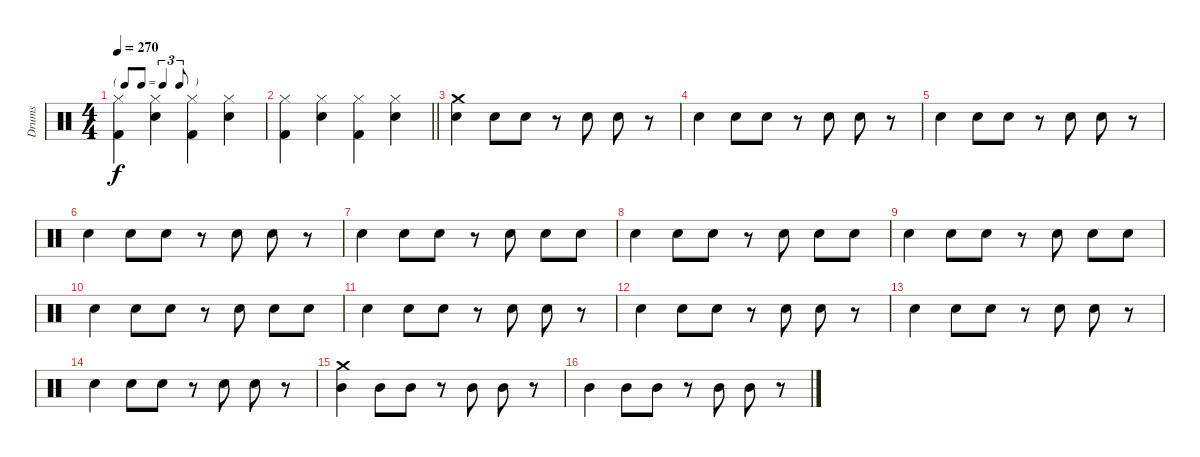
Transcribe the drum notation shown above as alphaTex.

\track ("Drums" "Drums") {instrument percussion}
\staff {score}
\articulation defaults
\ts (4 4)
\tf triplet8th
\tempo 270
\clef neutral
\ks c
("Hi-Hat (closed)" "Kick (hit) 2").4{dy f} ("Snare (hit) 2" "Hi-Hat (closed)").4 ("Hi-Hat (closed)" "Kick (hit) 2").4 ("Snare (hit) 2" "Hi-Hat (closed)").4 |
\barLineRight lightlight
("Hi-Hat (closed)" "Kick (hit) 2").4 ("Snare (hit) 2" "Hi-Hat (closed)").4 ("Hi-Hat (closed)" "Kick (hit) 2").4 ("Snare (hit) 2" "Hi-Hat (closed)").4 |
("Snare (hit) 2" "Crash medium (hit)").4 "Snare (hit) 2".8 "Snare (hit) 2".8 r.8 "Snare (hit) 2".8 "Snare (hit) 2".8 r.8 |
"Snare (hit) 2".4 "Snare (hit) 2".8 "Snare (hit) 2".8 r.8 "Snare (hit) 2".8 "Snare (hit) 2".8 r.8 |
"Snare (hit) 2".4 "Snare (hit) 2".8 "Snare (hit) 2".8 r.8 "Snare (hit) 2".8 "Snare (hit) 2".8 r.8 |
"Snare (hit) 2".4 "Snare (hit) 2".8 "Snare (hit) 2".8 r.8 "Snare (hit) 2".8 "Snare (hit) 2".8 r.8 |
"Snare (hit) 2".4 "Snare (hit) 2".8 "Snare (hit) 2".8 r.8 "Snare (hit) 2".8 "Snare (hit) 2".8 "Snare (hit) 2".8 |
"Snare (hit) 2".4 "Snare (hit) 2".8 "Snare (hit) 2".8 r.8 "Snare (hit) 2".8 "Snare (hit) 2".8 "Snare (hit) 2".8 |
"Snare (hit) 2".4 "Snare (hit) 2".8 "Snare (hit) 2".8 r.8 "Snare (hit) 2".8 "Snare (hit) 2".8 "Snare (hit) 2".8 |
"Snare (hit) 2".4 "Snare (hit) 2".8 "Snare (hit) 2".8 r.8 "Snare (hit) 2".8 "Snare (hit) 2".8 "Snare (hit) 2".8 |
"Snare (hit) 2".4 "Snare (hit) 2".8 "Snare (hit) 2".8 r.8 "Snare (hit) 2".8 "Snare (hit) 2".8 r.8 |
"Snare (hit) 2".4 "Snare (hit) 2".8 "Snare (hit) 2".8 r.8 "Snare (hit) 2".8 "Snare (hit) 2".8 r.8 |
"Snare (hit) 2".4 "Snare (hit) 2".8 "Snare (hit) 2".8 r.8 "Snare (hit) 2".8 "Snare (hit) 2".8 r.8 |
"Snare (hit) 2".4 "Snare (hit) 2".8 "Snare (hit) 2".8 r.8 "Snare (hit) 2".8 "Snare (hit) 2".8 r.8 |
("Mid Tom (hit)" "Crash medium (hit)").4 "Mid Tom (hit)".8 "Mid Tom (hit)".8 r.8 "Mid Tom (hit)".8 "Mid Tom (hit)".8 r.8 |
"Mid Tom (hit)".4 "Mid Tom (hit)".8 "Mid Tom (hit)".8 r.8 "Mid Tom (hit)".8 "Mid Tom (hit)".8 r.8
